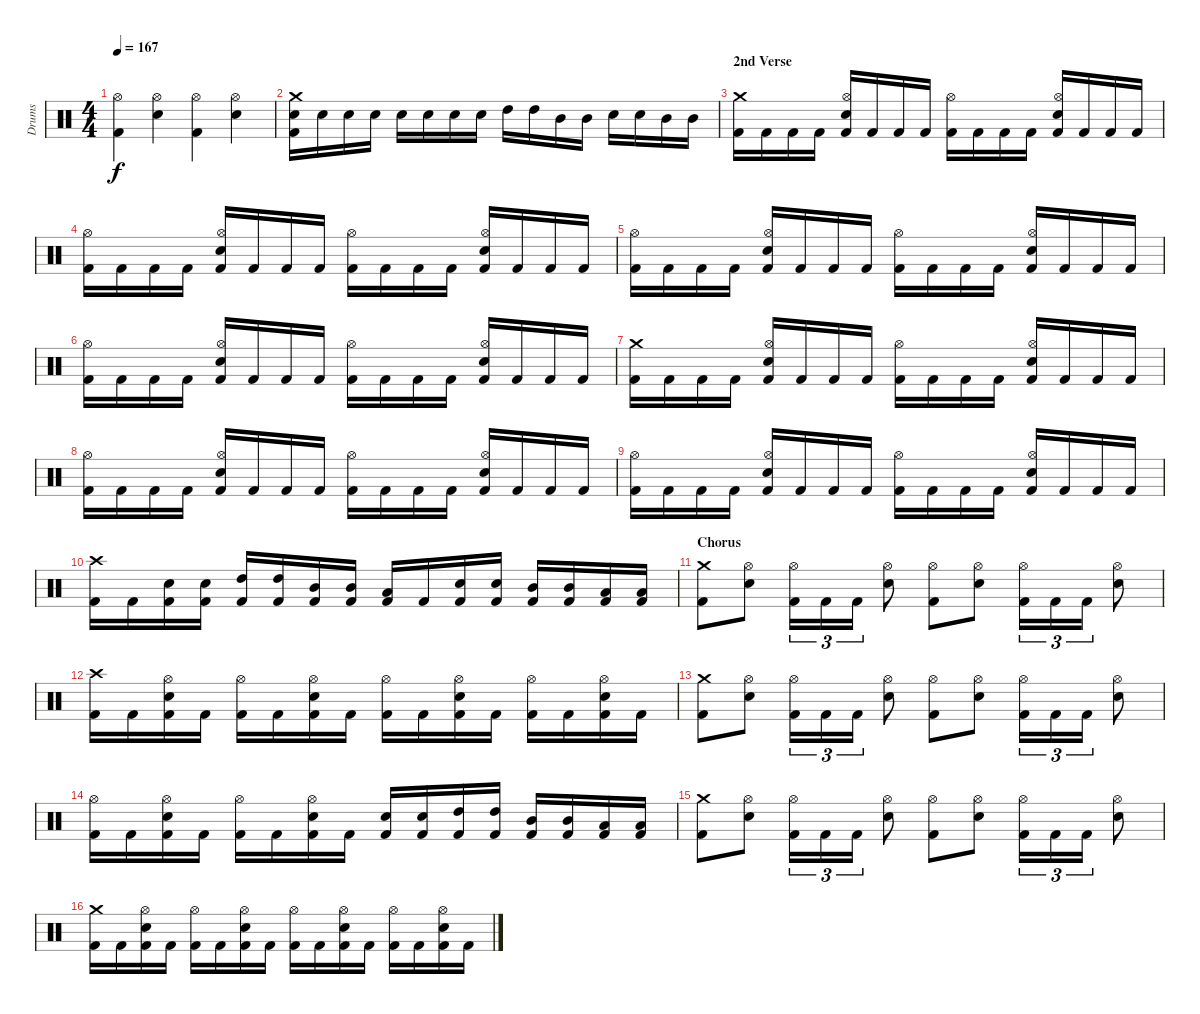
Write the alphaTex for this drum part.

\track ("Drums" "Drums") {instrument percussion}
\staff {score}
\articulation defaults
\ts (4 4)
\tempo 167
\clef neutral
\ks c
("Kick (hit) 2" "Hi-Hat (open)").4{dy f} ("Electric Snare (hit)" "Hi-Hat (open)").4 ("Kick (hit) 2" "Hi-Hat (open)").4 ("Electric Snare (hit)" "Hi-Hat (open)").4 |
("Kick (hit) 2" "Electric Snare (hit)" "Crash medium (hit)").16 "Electric Snare (hit)".16 "Electric Snare (hit)".16 "Electric Snare (hit)".16 "Electric Snare (hit)".16 "Electric Snare (hit)".16 "Electric Snare (hit)".16 "Electric Snare (hit)".16 "High Tom (hit)".16 "High Tom (hit)".16 "Mid Tom (hit)".16 "Mid Tom (hit)".16 "Electric Snare (hit)".16 "Electric Snare (hit)".16 "Mid Tom (hit)".16 "Mid Tom (hit)".16 |
\section ("" "2nd Verse")
("Kick (hit) 2" "Crash medium (hit)").16 "Kick (hit) 2".16 "Kick (hit) 2".16 "Kick (hit) 2".16 ("Kick (hit) 2" "Electric Snare (hit)" "Hi-Hat (open)").16 "Kick (hit) 2".16 "Kick (hit) 2".16 "Kick (hit) 2".16 ("Kick (hit) 2" "Hi-Hat (open)").16 "Kick (hit) 2".16 "Kick (hit) 2".16 "Kick (hit) 2".16 ("Kick (hit) 2" "Electric Snare (hit)" "Hi-Hat (open)").16 "Kick (hit) 2".16 "Kick (hit) 2".16 "Kick (hit) 2".16 |
("Kick (hit) 2" "Hi-Hat (open)").16 "Kick (hit) 2".16 "Kick (hit) 2".16 "Kick (hit) 2".16 ("Kick (hit) 2" "Electric Snare (hit)" "Hi-Hat (open)").16 "Kick (hit) 2".16 "Kick (hit) 2".16 "Kick (hit) 2".16 ("Kick (hit) 2" "Hi-Hat (open)").16 "Kick (hit) 2".16 "Kick (hit) 2".16 "Kick (hit) 2".16 ("Kick (hit) 2" "Electric Snare (hit)" "Hi-Hat (open)").16 "Kick (hit) 2".16 "Kick (hit) 2".16 "Kick (hit) 2".16 |
("Kick (hit) 2" "Hi-Hat (open)").16 "Kick (hit) 2".16 "Kick (hit) 2".16 "Kick (hit) 2".16 ("Kick (hit) 2" "Electric Snare (hit)" "Hi-Hat (open)").16 "Kick (hit) 2".16 "Kick (hit) 2".16 "Kick (hit) 2".16 ("Kick (hit) 2" "Hi-Hat (open)").16 "Kick (hit) 2".16 "Kick (hit) 2".16 "Kick (hit) 2".16 ("Kick (hit) 2" "Electric Snare (hit)" "Hi-Hat (open)").16 "Kick (hit) 2".16 "Kick (hit) 2".16 "Kick (hit) 2".16 |
("Kick (hit) 2" "Hi-Hat (open)").16 "Kick (hit) 2".16 "Kick (hit) 2".16 "Kick (hit) 2".16 ("Kick (hit) 2" "Electric Snare (hit)" "Hi-Hat (open)").16 "Kick (hit) 2".16 "Kick (hit) 2".16 "Kick (hit) 2".16 ("Kick (hit) 2" "Hi-Hat (open)").16 "Kick (hit) 2".16 "Kick (hit) 2".16 "Kick (hit) 2".16 ("Kick (hit) 2" "Electric Snare (hit)" "Hi-Hat (open)").16 "Kick (hit) 2".16 "Kick (hit) 2".16 "Kick (hit) 2".16 |
("Kick (hit) 2" "Crash medium (hit)").16 "Kick (hit) 2".16 "Kick (hit) 2".16 "Kick (hit) 2".16 ("Kick (hit) 2" "Electric Snare (hit)" "Hi-Hat (open)").16 "Kick (hit) 2".16 "Kick (hit) 2".16 "Kick (hit) 2".16 ("Kick (hit) 2" "Hi-Hat (open)").16 "Kick (hit) 2".16 "Kick (hit) 2".16 "Kick (hit) 2".16 ("Kick (hit) 2" "Electric Snare (hit)" "Hi-Hat (open)").16 "Kick (hit) 2".16 "Kick (hit) 2".16 "Kick (hit) 2".16 |
("Kick (hit) 2" "Hi-Hat (open)").16 "Kick (hit) 2".16 "Kick (hit) 2".16 "Kick (hit) 2".16 ("Kick (hit) 2" "Electric Snare (hit)" "Hi-Hat (open)").16 "Kick (hit) 2".16 "Kick (hit) 2".16 "Kick (hit) 2".16 ("Kick (hit) 2" "Hi-Hat (open)").16 "Kick (hit) 2".16 "Kick (hit) 2".16 "Kick (hit) 2".16 ("Kick (hit) 2" "Electric Snare (hit)" "Hi-Hat (open)").16 "Kick (hit) 2".16 "Kick (hit) 2".16 "Kick (hit) 2".16 |
("Kick (hit) 2" "Hi-Hat (open)").16 "Kick (hit) 2".16 "Kick (hit) 2".16 "Kick (hit) 2".16 ("Kick (hit) 2" "Electric Snare (hit)" "Hi-Hat (open)").16 "Kick (hit) 2".16 "Kick (hit) 2".16 "Kick (hit) 2".16 ("Kick (hit) 2" "Hi-Hat (open)").16 "Kick (hit) 2".16 "Kick (hit) 2".16 "Kick (hit) 2".16 ("Kick (hit) 2" "Electric Snare (hit)" "Hi-Hat (open)").16 "Kick (hit) 2".16 "Kick (hit) 2".16 "Kick (hit) 2".16 |
("Kick (hit) 2" "Crash high (hit)").16 "Kick (hit) 2".16 ("Kick (hit) 2" "Electric Snare (hit)").16 ("Kick (hit) 2" "Electric Snare (hit)").16 ("Kick (hit) 2" "High Tom (hit)").16 ("Kick (hit) 2" "High Tom (hit)").16 ("Kick (hit) 2" "Mid Tom (hit)").16 ("Kick (hit) 2" "Mid Tom (hit)").16 ("Kick (hit) 2" "Low Tom (hit)").16 "Kick (hit) 2".16 ("Kick (hit) 2" "Electric Snare (hit)").16 ("Kick (hit) 2" "Electric Snare (hit)").16 ("Kick (hit) 2" "Mid Tom (hit)").16 ("Kick (hit) 2" "Mid Tom (hit)").16 ("Kick (hit) 2" "Low Tom (hit)").16 ("Kick (hit) 2" "Low Tom (hit)").16 |
\section ("" "Chorus")
("Kick (hit) 2" "Crash medium (hit)").8 ("Electric Snare (hit)" "Hi-Hat (open)").8 ("Kick (hit) 2" "Hi-Hat (open)").16{tu (3 2)} "Kick (hit) 2".16{tu (3 2)} "Kick (hit) 2".16{tu (3 2)} ("Electric Snare (hit)" "Hi-Hat (open)").8 ("Kick (hit) 2" "Hi-Hat (open)").8 ("Electric Snare (hit)" "Hi-Hat (open)").8 ("Kick (hit) 2" "Hi-Hat (open)").16{tu (3 2)} "Kick (hit) 2".16{tu (3 2)} "Kick (hit) 2".16{tu (3 2)} ("Electric Snare (hit)" "Hi-Hat (open)").8 |
("Kick (hit) 2" "Crash high (hit)").16 "Kick (hit) 2".16 ("Kick (hit) 2" "Electric Snare (hit)" "Hi-Hat (open)").16 "Kick (hit) 2".16 ("Kick (hit) 2" "Hi-Hat (open)").16 "Kick (hit) 2".16 ("Kick (hit) 2" "Electric Snare (hit)" "Hi-Hat (open)").16 "Kick (hit) 2".16 ("Kick (hit) 2" "Hi-Hat (open)").16 "Kick (hit) 2".16 ("Kick (hit) 2" "Electric Snare (hit)" "Hi-Hat (open)").16 "Kick (hit) 2".16 ("Kick (hit) 2" "Hi-Hat (open)").16 "Kick (hit) 2".16 ("Kick (hit) 2" "Electric Snare (hit)" "Hi-Hat (open)").16 "Kick (hit) 2".16 |
("Kick (hit) 2" "Crash medium (hit)").8 ("Electric Snare (hit)" "Hi-Hat (open)").8 ("Kick (hit) 2" "Hi-Hat (open)").16{tu (3 2)} "Kick (hit) 2".16{tu (3 2)} "Kick (hit) 2".16{tu (3 2)} ("Electric Snare (hit)" "Hi-Hat (open)").8 ("Kick (hit) 2" "Hi-Hat (open)").8 ("Electric Snare (hit)" "Hi-Hat (open)").8 ("Kick (hit) 2" "Hi-Hat (open)").16{tu (3 2)} "Kick (hit) 2".16{tu (3 2)} "Kick (hit) 2".16{tu (3 2)} ("Electric Snare (hit)" "Hi-Hat (open)").8 |
("Kick (hit) 2" "Hi-Hat (open)").16 "Kick (hit) 2".16 ("Kick (hit) 2" "Electric Snare (hit)" "Hi-Hat (open)").16 "Kick (hit) 2".16 ("Kick (hit) 2" "Hi-Hat (open)").16 "Kick (hit) 2".16 ("Kick (hit) 2" "Electric Snare (hit)" "Hi-Hat (open)").16 "Kick (hit) 2".16 ("Kick (hit) 2" "Electric Snare (hit)").16 ("Kick (hit) 2" "Electric Snare (hit)").16 ("Kick (hit) 2" "High Tom (hit)").16 ("Kick (hit) 2" "High Tom (hit)").16 ("Kick (hit) 2" "Mid Tom (hit)").16 ("Kick (hit) 2" "Mid Tom (hit)").16 ("Kick (hit) 2" "Low Tom (hit)").16 ("Kick (hit) 2" "Low Tom (hit)").16 |
("Kick (hit) 2" "Crash medium (hit)").8 ("Electric Snare (hit)" "Hi-Hat (open)").8 ("Kick (hit) 2" "Hi-Hat (open)").16{tu (3 2)} "Kick (hit) 2".16{tu (3 2)} "Kick (hit) 2".16{tu (3 2)} ("Electric Snare (hit)" "Hi-Hat (open)").8 ("Kick (hit) 2" "Hi-Hat (open)").8 ("Electric Snare (hit)" "Hi-Hat (open)").8 ("Kick (hit) 2" "Hi-Hat (open)").16{tu (3 2)} "Kick (hit) 2".16{tu (3 2)} "Kick (hit) 2".16{tu (3 2)} ("Electric Snare (hit)" "Hi-Hat (open)").8 |
("Kick (hit) 2" "Crash medium (hit)").16 "Kick (hit) 2".16 ("Kick (hit) 2" "Electric Snare (hit)" "Hi-Hat (open)").16 "Kick (hit) 2".16 ("Kick (hit) 2" "Hi-Hat (open)").16 "Kick (hit) 2".16 ("Kick (hit) 2" "Electric Snare (hit)" "Hi-Hat (open)").16 "Kick (hit) 2".16 ("Kick (hit) 2" "Hi-Hat (open)").16 "Kick (hit) 2".16 ("Kick (hit) 2" "Electric Snare (hit)" "Hi-Hat (open)").16 "Kick (hit) 2".16 ("Kick (hit) 2" "Hi-Hat (open)").16 "Kick (hit) 2".16 ("Kick (hit) 2" "Electric Snare (hit)" "Hi-Hat (open)").16 "Kick (hit) 2".16
